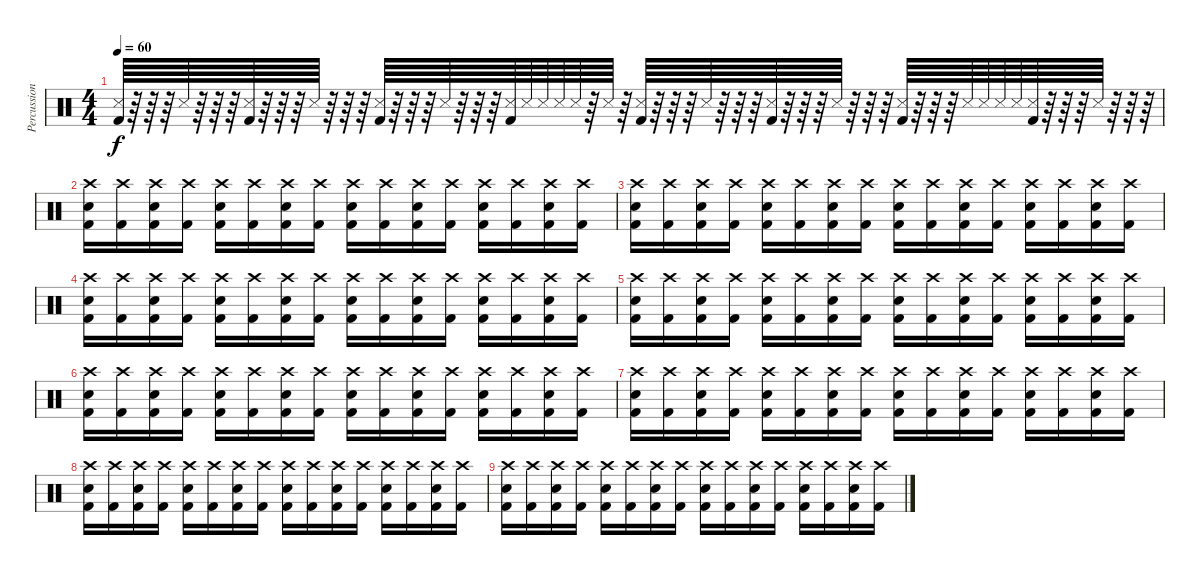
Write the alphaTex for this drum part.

\track ("Percussion" "Percussion") {instrument percussion}
\staff {score}
\articulation defaults
\ts (4 4)
\tempo 60
\clef neutral
\ks c
("Snare (side stick) 3" "Kick (hit) 2").64{dy f} r.64 r.64 r.64 "Snare (side stick) 3".64 r.64 r.64 r.64 ("Snare (side stick) 3" "Kick (hit) 2").64 r.64 r.64 r.64 "Snare (side stick) 3".64 r.64 r.64 r.64 ("Snare (side stick) 3" "Kick (hit) 2").64 r.64 r.64 r.64 "Snare (side stick) 3".64 r.64 r.64 r.64 ("Snare (side stick) 3" "Kick (hit) 2").64 "Snare (side stick) 3".64 "Snare (side stick) 3".64 "Snare (side stick) 3".64 "Snare (side stick) 3".64 r.64 "Snare (side stick) 3".64 r.64 ("Snare (side stick) 3" "Kick (hit) 2").64 r.64 r.64 r.64 "Snare (side stick) 3".64 r.64 r.64 r.64 ("Snare (side stick) 3" "Kick (hit) 2").64 r.64 r.64 r.64 "Snare (side stick) 3".64 r.64 r.64 r.64 ("Snare (side stick) 3" "Kick (hit) 2").64 r.64 r.64 r.64 "Snare (side stick) 3".64 "Snare (side stick) 3".64 "Snare (side stick) 3".64 "Snare (side stick) 3".64 ("Snare (side stick) 3" "Kick (hit) 2").64 r.64 r.64 r.64 "Snare (side stick) 3".64 r.64 r.64 r.64 |
("Crash high (hit)" "Electric Snare (hit)" "Kick (hit) 2").16 ("Crash high (hit)" "Kick (hit) 2").16 ("Crash high (hit)" "Electric Snare (hit)" "Kick (hit) 2").16 ("Crash high (hit)" "Kick (hit) 2").16 ("Crash high (hit)" "Electric Snare (hit)" "Kick (hit) 2").16 ("Crash high (hit)" "Kick (hit) 2").16 ("Crash high (hit)" "Electric Snare (hit)" "Kick (hit) 2").16 ("Crash high (hit)" "Kick (hit) 2").16 ("Crash high (hit)" "Electric Snare (hit)" "Kick (hit) 2").16 ("Crash high (hit)" "Kick (hit) 2").16 ("Crash high (hit)" "Electric Snare (hit)" "Kick (hit) 2").16 ("Crash high (hit)" "Kick (hit) 2").16 ("Crash high (hit)" "Electric Snare (hit)" "Kick (hit) 2").16 ("Crash high (hit)" "Kick (hit) 2").16 ("Crash high (hit)" "Electric Snare (hit)" "Kick (hit) 2").16 ("Crash high (hit)" "Kick (hit) 2").16 |
("Crash high (hit)" "Electric Snare (hit)" "Kick (hit) 2").16 ("Crash high (hit)" "Kick (hit) 2").16 ("Crash high (hit)" "Electric Snare (hit)" "Kick (hit) 2").16 ("Crash high (hit)" "Kick (hit) 2").16 ("Crash high (hit)" "Electric Snare (hit)" "Kick (hit) 2").16 ("Crash high (hit)" "Kick (hit) 2").16 ("Crash high (hit)" "Electric Snare (hit)" "Kick (hit) 2").16 ("Crash high (hit)" "Kick (hit) 2").16 ("Crash high (hit)" "Electric Snare (hit)" "Kick (hit) 2").16 ("Crash high (hit)" "Kick (hit) 2").16 ("Crash high (hit)" "Electric Snare (hit)" "Kick (hit) 2").16 ("Crash high (hit)" "Kick (hit) 2").16 ("Crash high (hit)" "Electric Snare (hit)" "Kick (hit) 2").16 ("Crash high (hit)" "Kick (hit) 2").16 ("Crash high (hit)" "Electric Snare (hit)" "Kick (hit) 2").16 ("Crash high (hit)" "Kick (hit) 2").16 |
("Crash high (hit)" "Electric Snare (hit)" "Kick (hit) 2").16 ("Crash high (hit)" "Kick (hit) 2").16 ("Crash high (hit)" "Electric Snare (hit)" "Kick (hit) 2").16 ("Crash high (hit)" "Kick (hit) 2").16 ("Crash high (hit)" "Electric Snare (hit)" "Kick (hit) 2").16 ("Crash high (hit)" "Kick (hit) 2").16 ("Crash high (hit)" "Electric Snare (hit)" "Kick (hit) 2").16 ("Crash high (hit)" "Kick (hit) 2").16 ("Crash high (hit)" "Electric Snare (hit)" "Kick (hit) 2").16 ("Crash high (hit)" "Kick (hit) 2").16 ("Crash high (hit)" "Electric Snare (hit)" "Kick (hit) 2").16 ("Crash high (hit)" "Kick (hit) 2").16 ("Crash high (hit)" "Electric Snare (hit)" "Kick (hit) 2").16 ("Crash high (hit)" "Kick (hit) 2").16 ("Crash high (hit)" "Electric Snare (hit)" "Kick (hit) 2").16 ("Crash high (hit)" "Kick (hit) 2").16 |
("Crash high (hit)" "Electric Snare (hit)" "Kick (hit) 2").16 ("Crash high (hit)" "Kick (hit) 2").16 ("Crash high (hit)" "Electric Snare (hit)" "Kick (hit) 2").16 ("Crash high (hit)" "Kick (hit) 2").16 ("Crash high (hit)" "Electric Snare (hit)" "Kick (hit) 2").16 ("Crash high (hit)" "Kick (hit) 2").16 ("Crash high (hit)" "Electric Snare (hit)" "Kick (hit) 2").16 ("Crash high (hit)" "Kick (hit) 2").16 ("Crash high (hit)" "Electric Snare (hit)" "Kick (hit) 2").16 ("Crash high (hit)" "Kick (hit) 2").16 ("Crash high (hit)" "Electric Snare (hit)" "Kick (hit) 2").16 ("Crash high (hit)" "Kick (hit) 2").16 ("Crash high (hit)" "Electric Snare (hit)" "Kick (hit) 2").16 ("Crash high (hit)" "Kick (hit) 2").16 ("Crash high (hit)" "Electric Snare (hit)" "Kick (hit) 2").16 ("Crash high (hit)" "Kick (hit) 2").16 |
("Crash high (hit)" "Electric Snare (hit)" "Kick (hit) 2").16 ("Crash high (hit)" "Kick (hit) 2").16 ("Crash high (hit)" "Electric Snare (hit)" "Kick (hit) 2").16 ("Crash high (hit)" "Kick (hit) 2").16 ("Crash high (hit)" "Electric Snare (hit)" "Kick (hit) 2").16 ("Crash high (hit)" "Kick (hit) 2").16 ("Crash high (hit)" "Electric Snare (hit)" "Kick (hit) 2").16 ("Crash high (hit)" "Kick (hit) 2").16 ("Crash high (hit)" "Electric Snare (hit)" "Kick (hit) 2").16 ("Crash high (hit)" "Kick (hit) 2").16 ("Crash high (hit)" "Electric Snare (hit)" "Kick (hit) 2").16 ("Crash high (hit)" "Kick (hit) 2").16 ("Crash high (hit)" "Electric Snare (hit)" "Kick (hit) 2").16 ("Crash high (hit)" "Kick (hit) 2").16 ("Crash high (hit)" "Electric Snare (hit)" "Kick (hit) 2").16 ("Crash high (hit)" "Kick (hit) 2").16 |
("Crash high (hit)" "Electric Snare (hit)" "Kick (hit) 2").16 ("Crash high (hit)" "Kick (hit) 2").16 ("Crash high (hit)" "Electric Snare (hit)" "Kick (hit) 2").16 ("Crash high (hit)" "Kick (hit) 2").16 ("Crash high (hit)" "Electric Snare (hit)" "Kick (hit) 2").16 ("Crash high (hit)" "Kick (hit) 2").16 ("Crash high (hit)" "Electric Snare (hit)" "Kick (hit) 2").16 ("Crash high (hit)" "Kick (hit) 2").16 ("Crash high (hit)" "Electric Snare (hit)" "Kick (hit) 2").16 ("Crash high (hit)" "Kick (hit) 2").16 ("Crash high (hit)" "Electric Snare (hit)" "Kick (hit) 2").16 ("Crash high (hit)" "Kick (hit) 2").16 ("Crash high (hit)" "Electric Snare (hit)" "Kick (hit) 2").16 ("Crash high (hit)" "Kick (hit) 2").16 ("Crash high (hit)" "Electric Snare (hit)" "Kick (hit) 2").16 ("Crash high (hit)" "Kick (hit) 2").16 |
("Crash high (hit)" "Electric Snare (hit)" "Kick (hit) 2").16 ("Crash high (hit)" "Kick (hit) 2").16 ("Crash high (hit)" "Electric Snare (hit)" "Kick (hit) 2").16 ("Crash high (hit)" "Kick (hit) 2").16 ("Crash high (hit)" "Electric Snare (hit)" "Kick (hit) 2").16 ("Crash high (hit)" "Kick (hit) 2").16 ("Crash high (hit)" "Electric Snare (hit)" "Kick (hit) 2").16 ("Crash high (hit)" "Kick (hit) 2").16 ("Crash high (hit)" "Electric Snare (hit)" "Kick (hit) 2").16 ("Crash high (hit)" "Kick (hit) 2").16 ("Crash high (hit)" "Electric Snare (hit)" "Kick (hit) 2").16 ("Crash high (hit)" "Kick (hit) 2").16 ("Crash high (hit)" "Electric Snare (hit)" "Kick (hit) 2").16 ("Crash high (hit)" "Kick (hit) 2").16 ("Crash high (hit)" "Electric Snare (hit)" "Kick (hit) 2").16 ("Crash high (hit)" "Kick (hit) 2").16 |
("Crash high (hit)" "Electric Snare (hit)" "Kick (hit) 2").16 ("Crash high (hit)" "Kick (hit) 2").16 ("Crash high (hit)" "Electric Snare (hit)" "Kick (hit) 2").16 ("Crash high (hit)" "Kick (hit) 2").16 ("Crash high (hit)" "Electric Snare (hit)" "Kick (hit) 2").16 ("Crash high (hit)" "Kick (hit) 2").16 ("Crash high (hit)" "Electric Snare (hit)" "Kick (hit) 2").16 ("Crash high (hit)" "Kick (hit) 2").16 ("Crash high (hit)" "Electric Snare (hit)" "Kick (hit) 2").16 ("Crash high (hit)" "Kick (hit) 2").16 ("Crash high (hit)" "Electric Snare (hit)" "Kick (hit) 2").16 ("Crash high (hit)" "Kick (hit) 2").16 ("Crash high (hit)" "Electric Snare (hit)" "Kick (hit) 2").16 ("Crash high (hit)" "Kick (hit) 2").16 ("Crash high (hit)" "Electric Snare (hit)" "Kick (hit) 2").16 ("Crash high (hit)" "Kick (hit) 2").16
